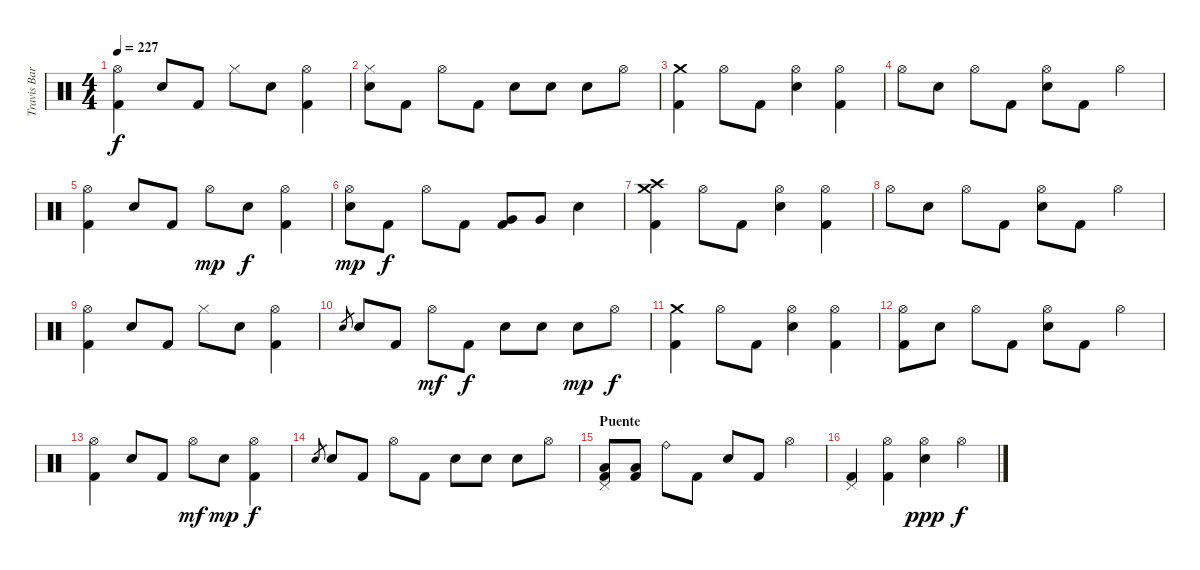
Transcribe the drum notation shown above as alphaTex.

\track ("Travis Barker - Batería" "Travis Bar") {instrument percussion}
\staff {score}
\articulation defaults
\ts (4 4)
\tempo 227
\clef neutral
\ks c
("Hi-Hat (open)" "Kick (hit) 2").4{dy f} "Electric Snare (hit)".8 "Kick (hit) 2".8 "Hi-Hat (closed)".8 "Electric Snare (hit)".8 ("Hi-Hat (open)" "Kick (hit) 2").4 |
("Hi-Hat (closed)" "Electric Snare (hit)").8 "Kick (hit) 2".8 "Hi-Hat (open)".8 "Kick (hit) 2".8 "Electric Snare (hit)".8 "Electric Snare (hit)".8 "Electric Snare (hit)".8 "Hi-Hat (open)".8 |
("Crash medium (hit)" "Kick (hit) 2").4 "Hi-Hat (open)".8 "Kick (hit) 2".8 ("Hi-Hat (open)" "Electric Snare (hit)").4 ("Hi-Hat (open)" "Kick (hit) 2").4 |
"Hi-Hat (open)".8 "Electric Snare (hit)".8 "Hi-Hat (open)".8 "Kick (hit) 2".8 ("Hi-Hat (open)" "Electric Snare (hit)").8 "Kick (hit) 2".8 "Hi-Hat (open)".4 |
("Hi-Hat (open)" "Kick (hit) 2").4 "Electric Snare (hit)".8 "Kick (hit) 2".8 "Hi-Hat (open)".8{dy mp} "Electric Snare (hit)".8{dy f} ("Hi-Hat (open)" "Kick (hit) 2").4 |
("Hi-Hat (open)" "Electric Snare (hit)").8{dy mp} "Kick (hit) 2".8{dy f} "Hi-Hat (open)".8 "Kick (hit) 2".8 ("Very Low Tom (hit)" "Kick (hit) 2").8 "Very Low Tom (hit)".8 "Electric Snare (hit)".4 |
("Crash medium (hit)" "Crash high (hit)" "Kick (hit) 2").4 "Hi-Hat (open)".8 "Kick (hit) 2".8 ("Hi-Hat (open)" "Electric Snare (hit)").4 ("Hi-Hat (open)" "Kick (hit) 2").4 |
"Hi-Hat (open)".8 "Electric Snare (hit)".8 "Hi-Hat (open)".8 "Kick (hit) 2".8 ("Hi-Hat (open)" "Electric Snare (hit)").8 "Kick (hit) 2".8 "Hi-Hat (open)".4 |
("Hi-Hat (open)" "Kick (hit) 2").4 "Electric Snare (hit)".8 "Kick (hit) 2".8 "Hi-Hat (closed)".8 "Electric Snare (hit)".8 ("Hi-Hat (open)" "Kick (hit) 2").4 |
"Electric Snare (hit)".8{gr} "Electric Snare (hit)".8 "Kick (hit) 2".8 "Hi-Hat (open)".8{dy mf} "Kick (hit) 2".8{dy f} "Electric Snare (hit)".8 "Electric Snare (hit)".8 "Electric Snare (hit)".8{dy mp} "Hi-Hat (open)".8{dy f} |
("Crash medium (hit)" "Kick (hit) 2").4 "Hi-Hat (open)".8 "Kick (hit) 2".8 ("Hi-Hat (open)" "Electric Snare (hit)").4 ("Hi-Hat (open)" "Kick (hit) 2").4 |
("Hi-Hat (open)" "Kick (hit) 2").8 "Electric Snare (hit)".8 "Hi-Hat (open)".8 "Kick (hit) 2".8 ("Hi-Hat (open)" "Electric Snare (hit)").8 "Kick (hit) 2".8 "Hi-Hat (open)".4 |
("Hi-Hat (open)" "Kick (hit) 2").4 "Electric Snare (hit)".8 "Kick (hit) 2".8 "Hi-Hat (open)".8{dy mf} "Electric Snare (hit)".8{dy mp} ("Hi-Hat (open)" "Kick (hit) 2").4{dy f} |
"Electric Snare (hit)".8{gr} "Electric Snare (hit)".8 "Kick (hit) 2".8 "Hi-Hat (open)".8 "Kick (hit) 2".8 "Electric Snare (hit)".8 "Electric Snare (hit)".8 "Electric Snare (hit)".8 "Hi-Hat (open)".8 |
\section ("" "Puente")
("Pedal Hi-Hat (hit)" "Low Floor Tom (hit)" "Kick (hit) 2").8 ("Low Floor Tom (hit)" "Kick (hit) 2").8 "Ride (bell)".8 "Kick (hit) 2".8 "Electric Snare (hit)".8 "Kick (hit) 2".8 "Hi-Hat (open)".4 |
("Pedal Hi-Hat (hit)" "Kick (hit) 2").4 ("Hi-Hat (open)" "Kick (hit) 2").4 ("Hi-Hat (open)" "Electric Snare (hit)").4{dy ppp} "Hi-Hat (open)".4{dy f}
